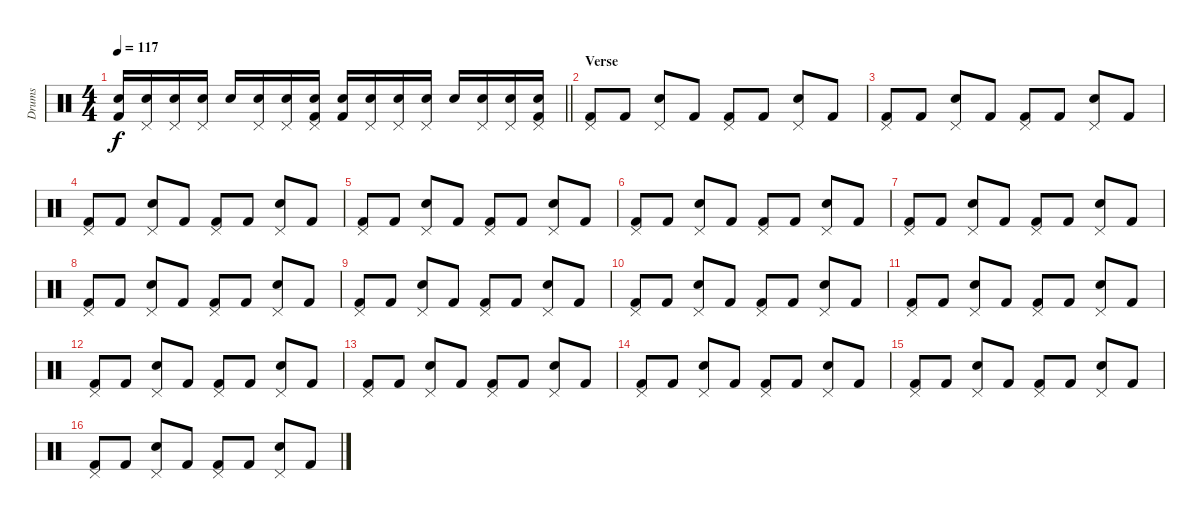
\track ("Drums" "Drums") {instrument percussion}
\staff {score}
\articulation defaults
\ts (4 4)
\tempo 117
\clef neutral
\barLineRight lightlight
\ks c
("Kick (hit) 2" "Snare (hit) 2").16{dy f} ("Snare (hit) 2" "Pedal Hi-Hat (hit)").16 ("Snare (hit) 2" "Pedal Hi-Hat (hit)").16 ("Snare (hit) 2" "Pedal Hi-Hat (hit)").16 "Snare (hit) 2".16 ("Snare (hit) 2" "Pedal Hi-Hat (hit)").16 ("Snare (hit) 2" "Pedal Hi-Hat (hit)").16 ("Kick (hit) 2" "Snare (hit) 2" "Pedal Hi-Hat (hit)").16 ("Kick (hit) 2" "Snare (hit) 2").16 ("Snare (hit) 2" "Pedal Hi-Hat (hit)").16 ("Snare (hit) 2" "Pedal Hi-Hat (hit)").16 ("Snare (hit) 2" "Pedal Hi-Hat (hit)").16 "Snare (hit) 2".16 ("Snare (hit) 2" "Pedal Hi-Hat (hit)").16 ("Snare (hit) 2" "Pedal Hi-Hat (hit)").16 ("Kick (hit) 2" "Snare (hit) 2" "Pedal Hi-Hat (hit)").16 |
\section ("" "Verse")
("Kick (hit) 2" "Pedal Hi-Hat (hit)").8 "Kick (hit) 2".8 ("Snare (hit) 2" "Pedal Hi-Hat (hit)").8 "Kick (hit) 2".8 ("Kick (hit) 2" "Pedal Hi-Hat (hit)").8 "Kick (hit) 2".8 ("Snare (hit) 2" "Pedal Hi-Hat (hit)").8 "Kick (hit) 2".8 |
("Kick (hit) 2" "Pedal Hi-Hat (hit)").8 "Kick (hit) 2".8 ("Snare (hit) 2" "Pedal Hi-Hat (hit)").8 "Kick (hit) 2".8 ("Kick (hit) 2" "Pedal Hi-Hat (hit)").8 "Kick (hit) 2".8 ("Snare (hit) 2" "Pedal Hi-Hat (hit)").8 "Kick (hit) 2".8 |
("Kick (hit) 2" "Pedal Hi-Hat (hit)").8 "Kick (hit) 2".8 ("Snare (hit) 2" "Pedal Hi-Hat (hit)").8 "Kick (hit) 2".8 ("Kick (hit) 2" "Pedal Hi-Hat (hit)").8 "Kick (hit) 2".8 ("Snare (hit) 2" "Pedal Hi-Hat (hit)").8 "Kick (hit) 2".8 |
("Kick (hit) 2" "Pedal Hi-Hat (hit)").8 "Kick (hit) 2".8 ("Snare (hit) 2" "Pedal Hi-Hat (hit)").8 "Kick (hit) 2".8 ("Kick (hit) 2" "Pedal Hi-Hat (hit)").8 "Kick (hit) 2".8 ("Snare (hit) 2" "Pedal Hi-Hat (hit)").8 "Kick (hit) 2".8 |
("Kick (hit) 2" "Pedal Hi-Hat (hit)").8 "Kick (hit) 2".8 ("Snare (hit) 2" "Pedal Hi-Hat (hit)").8 "Kick (hit) 2".8 ("Kick (hit) 2" "Pedal Hi-Hat (hit)").8 "Kick (hit) 2".8 ("Snare (hit) 2" "Pedal Hi-Hat (hit)").8 "Kick (hit) 2".8 |
("Kick (hit) 2" "Pedal Hi-Hat (hit)").8 "Kick (hit) 2".8 ("Snare (hit) 2" "Pedal Hi-Hat (hit)").8 "Kick (hit) 2".8 ("Kick (hit) 2" "Pedal Hi-Hat (hit)").8 "Kick (hit) 2".8 ("Snare (hit) 2" "Pedal Hi-Hat (hit)").8 "Kick (hit) 2".8 |
("Kick (hit) 2" "Pedal Hi-Hat (hit)").8 "Kick (hit) 2".8 ("Snare (hit) 2" "Pedal Hi-Hat (hit)").8 "Kick (hit) 2".8 ("Kick (hit) 2" "Pedal Hi-Hat (hit)").8 "Kick (hit) 2".8 ("Snare (hit) 2" "Pedal Hi-Hat (hit)").8 "Kick (hit) 2".8 |
("Kick (hit) 2" "Pedal Hi-Hat (hit)").8 "Kick (hit) 2".8 ("Snare (hit) 2" "Pedal Hi-Hat (hit)").8 "Kick (hit) 2".8 ("Kick (hit) 2" "Pedal Hi-Hat (hit)").8 "Kick (hit) 2".8 ("Snare (hit) 2" "Pedal Hi-Hat (hit)").8 "Kick (hit) 2".8 |
("Kick (hit) 2" "Pedal Hi-Hat (hit)").8 "Kick (hit) 2".8 ("Snare (hit) 2" "Pedal Hi-Hat (hit)").8 "Kick (hit) 2".8 ("Kick (hit) 2" "Pedal Hi-Hat (hit)").8 "Kick (hit) 2".8 ("Snare (hit) 2" "Pedal Hi-Hat (hit)").8 "Kick (hit) 2".8 |
("Kick (hit) 2" "Pedal Hi-Hat (hit)").8 "Kick (hit) 2".8 ("Snare (hit) 2" "Pedal Hi-Hat (hit)").8 "Kick (hit) 2".8 ("Kick (hit) 2" "Pedal Hi-Hat (hit)").8 "Kick (hit) 2".8 ("Snare (hit) 2" "Pedal Hi-Hat (hit)").8 "Kick (hit) 2".8 |
("Kick (hit) 2" "Pedal Hi-Hat (hit)").8 "Kick (hit) 2".8 ("Snare (hit) 2" "Pedal Hi-Hat (hit)").8 "Kick (hit) 2".8 ("Kick (hit) 2" "Pedal Hi-Hat (hit)").8 "Kick (hit) 2".8 ("Snare (hit) 2" "Pedal Hi-Hat (hit)").8 "Kick (hit) 2".8 |
("Kick (hit) 2" "Pedal Hi-Hat (hit)").8 "Kick (hit) 2".8 ("Snare (hit) 2" "Pedal Hi-Hat (hit)").8 "Kick (hit) 2".8 ("Kick (hit) 2" "Pedal Hi-Hat (hit)").8 "Kick (hit) 2".8 ("Snare (hit) 2" "Pedal Hi-Hat (hit)").8 "Kick (hit) 2".8 |
("Kick (hit) 2" "Pedal Hi-Hat (hit)").8 "Kick (hit) 2".8 ("Snare (hit) 2" "Pedal Hi-Hat (hit)").8 "Kick (hit) 2".8 ("Kick (hit) 2" "Pedal Hi-Hat (hit)").8 "Kick (hit) 2".8 ("Snare (hit) 2" "Pedal Hi-Hat (hit)").8 "Kick (hit) 2".8 |
("Kick (hit) 2" "Pedal Hi-Hat (hit)").8 "Kick (hit) 2".8 ("Snare (hit) 2" "Pedal Hi-Hat (hit)").8 "Kick (hit) 2".8 ("Kick (hit) 2" "Pedal Hi-Hat (hit)").8 "Kick (hit) 2".8 ("Snare (hit) 2" "Pedal Hi-Hat (hit)").8 "Kick (hit) 2".8 |
("Kick (hit) 2" "Pedal Hi-Hat (hit)").8 "Kick (hit) 2".8 ("Snare (hit) 2" "Pedal Hi-Hat (hit)").8 "Kick (hit) 2".8 ("Kick (hit) 2" "Pedal Hi-Hat (hit)").8 "Kick (hit) 2".8 ("Snare (hit) 2" "Pedal Hi-Hat (hit)").8 "Kick (hit) 2".8
